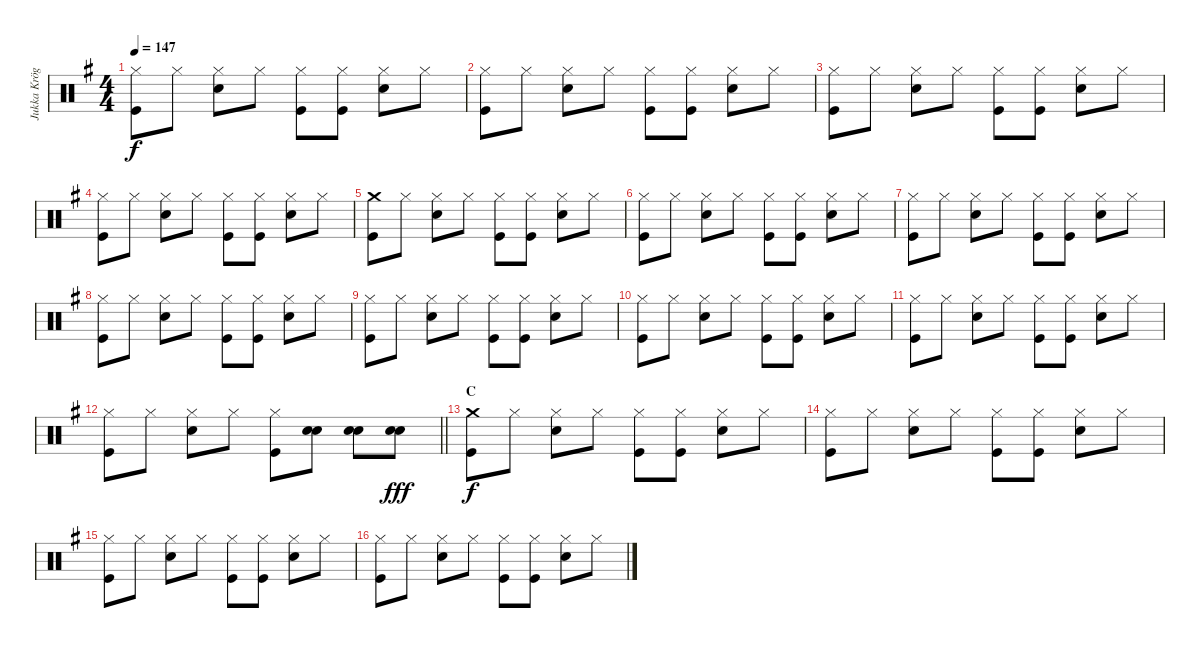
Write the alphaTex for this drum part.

\track ("Jukka Kröger" "Jukka Krög") {instrument percussion}
\staff {score}
\articulation defaults
\ts (4 4)
\tempo 147
\clef neutral
\ks eminor
("Hi-Hat (closed)" "Kick (hit)").8{dy f} "Hi-Hat (closed)".8 ("Hi-Hat (closed)" "Snare (hit) 2").8 "Hi-Hat (closed)".8 ("Hi-Hat (closed)" "Kick (hit)").8 ("Hi-Hat (closed)" "Kick (hit)").8 ("Hi-Hat (closed)" "Snare (hit) 2").8 "Hi-Hat (closed)".8 |
("Hi-Hat (closed)" "Kick (hit)").8 "Hi-Hat (closed)".8 ("Hi-Hat (closed)" "Snare (hit) 2").8 "Hi-Hat (closed)".8 ("Hi-Hat (closed)" "Kick (hit)").8 ("Hi-Hat (closed)" "Kick (hit)").8 ("Hi-Hat (closed)" "Snare (hit) 2").8 "Hi-Hat (closed)".8 |
("Hi-Hat (closed)" "Kick (hit)").8 "Hi-Hat (closed)".8 ("Hi-Hat (closed)" "Snare (hit) 2").8 "Hi-Hat (closed)".8 ("Hi-Hat (closed)" "Kick (hit)").8 ("Hi-Hat (closed)" "Kick (hit)").8 ("Hi-Hat (closed)" "Snare (hit) 2").8 "Hi-Hat (closed)".8 |
("Hi-Hat (closed)" "Kick (hit)").8 "Hi-Hat (closed)".8 ("Hi-Hat (closed)" "Snare (hit) 2").8 "Hi-Hat (closed)".8 ("Hi-Hat (closed)" "Kick (hit)").8 ("Hi-Hat (closed)" "Kick (hit)").8 ("Hi-Hat (closed)" "Snare (hit) 2").8 "Hi-Hat (closed)".8 |
("Crash medium (hit)" "Kick (hit)").8 "Hi-Hat (closed)".8 ("Hi-Hat (closed)" "Snare (hit) 2").8 "Hi-Hat (closed)".8 ("Hi-Hat (closed)" "Kick (hit)").8 ("Hi-Hat (closed)" "Kick (hit)").8 ("Hi-Hat (closed)" "Snare (hit) 2").8 "Hi-Hat (closed)".8 |
("Hi-Hat (closed)" "Kick (hit)").8 "Hi-Hat (closed)".8 ("Hi-Hat (closed)" "Snare (hit) 2").8 "Hi-Hat (closed)".8 ("Hi-Hat (closed)" "Kick (hit)").8 ("Hi-Hat (closed)" "Kick (hit)").8 ("Hi-Hat (closed)" "Snare (hit) 2").8 "Hi-Hat (closed)".8 |
("Hi-Hat (closed)" "Kick (hit)").8 "Hi-Hat (closed)".8 ("Hi-Hat (closed)" "Snare (hit) 2").8 "Hi-Hat (closed)".8 ("Hi-Hat (closed)" "Kick (hit)").8 ("Hi-Hat (closed)" "Kick (hit)").8 ("Hi-Hat (closed)" "Snare (hit) 2").8 "Hi-Hat (closed)".8 |
("Hi-Hat (closed)" "Kick (hit)").8 "Hi-Hat (closed)".8 ("Hi-Hat (closed)" "Snare (hit) 2").8 "Hi-Hat (closed)".8 ("Hi-Hat (closed)" "Kick (hit)").8 ("Hi-Hat (closed)" "Kick (hit)").8 ("Hi-Hat (closed)" "Snare (hit) 2").8 "Hi-Hat (closed)".8 |
("Hi-Hat (closed)" "Kick (hit)").8 "Hi-Hat (closed)".8 ("Hi-Hat (closed)" "Snare (hit) 2").8 "Hi-Hat (closed)".8 ("Hi-Hat (closed)" "Kick (hit)").8 ("Hi-Hat (closed)" "Kick (hit)").8 ("Hi-Hat (closed)" "Snare (hit) 2").8 "Hi-Hat (closed)".8 |
("Hi-Hat (closed)" "Kick (hit)").8 "Hi-Hat (closed)".8 ("Hi-Hat (closed)" "Snare (hit) 2").8 "Hi-Hat (closed)".8 ("Hi-Hat (closed)" "Kick (hit)").8 ("Hi-Hat (closed)" "Kick (hit)").8 ("Hi-Hat (closed)" "Snare (hit) 2").8 "Hi-Hat (closed)".8 |
("Hi-Hat (closed)" "Kick (hit)").8 "Hi-Hat (closed)".8 ("Hi-Hat (closed)" "Snare (hit) 2").8 "Hi-Hat (closed)".8 ("Hi-Hat (closed)" "Kick (hit)").8 ("Hi-Hat (closed)" "Kick (hit)").8 ("Hi-Hat (closed)" "Snare (hit) 2").8 "Hi-Hat (closed)".8 |
\barLineRight lightlight
("Hi-Hat (closed)" "Kick (hit)").8 "Hi-Hat (closed)".8 ("Hi-Hat (closed)" "Snare (hit) 2").8 "Hi-Hat (closed)".8 ("Hi-Hat (closed)" "Kick (hit)").8 ("Snare (hit) 2" "Snare (hit) 2").8 ("Snare (hit) 2" "Snare (hit) 2").8 ("Snare (hit) 2" "Snare (hit) 2").8{dy fff} |
\section ("" "C")
("Crash medium (hit)" "Kick (hit)").8{dy f} "Hi-Hat (closed)".8 ("Hi-Hat (closed)" "Snare (hit) 2").8 "Hi-Hat (closed)".8 ("Hi-Hat (closed)" "Kick (hit)").8 ("Hi-Hat (closed)" "Kick (hit)").8 ("Hi-Hat (closed)" "Snare (hit) 2").8 "Hi-Hat (closed)".8 |
("Hi-Hat (closed)" "Kick (hit)").8 "Hi-Hat (closed)".8 ("Hi-Hat (closed)" "Snare (hit) 2").8 "Hi-Hat (closed)".8 ("Hi-Hat (closed)" "Kick (hit)").8 ("Hi-Hat (closed)" "Kick (hit)").8 ("Hi-Hat (closed)" "Snare (hit) 2").8 "Hi-Hat (closed)".8 |
("Hi-Hat (closed)" "Kick (hit)").8 "Hi-Hat (closed)".8 ("Hi-Hat (closed)" "Snare (hit) 2").8 "Hi-Hat (closed)".8 ("Hi-Hat (closed)" "Kick (hit)").8 ("Hi-Hat (closed)" "Kick (hit)").8 ("Hi-Hat (closed)" "Snare (hit) 2").8 "Hi-Hat (closed)".8 |
("Hi-Hat (closed)" "Kick (hit)").8 "Hi-Hat (closed)".8 ("Hi-Hat (closed)" "Snare (hit) 2").8 "Hi-Hat (closed)".8 ("Hi-Hat (closed)" "Kick (hit)").8 ("Hi-Hat (closed)" "Kick (hit)").8 ("Hi-Hat (closed)" "Snare (hit) 2").8 "Hi-Hat (closed)".8
